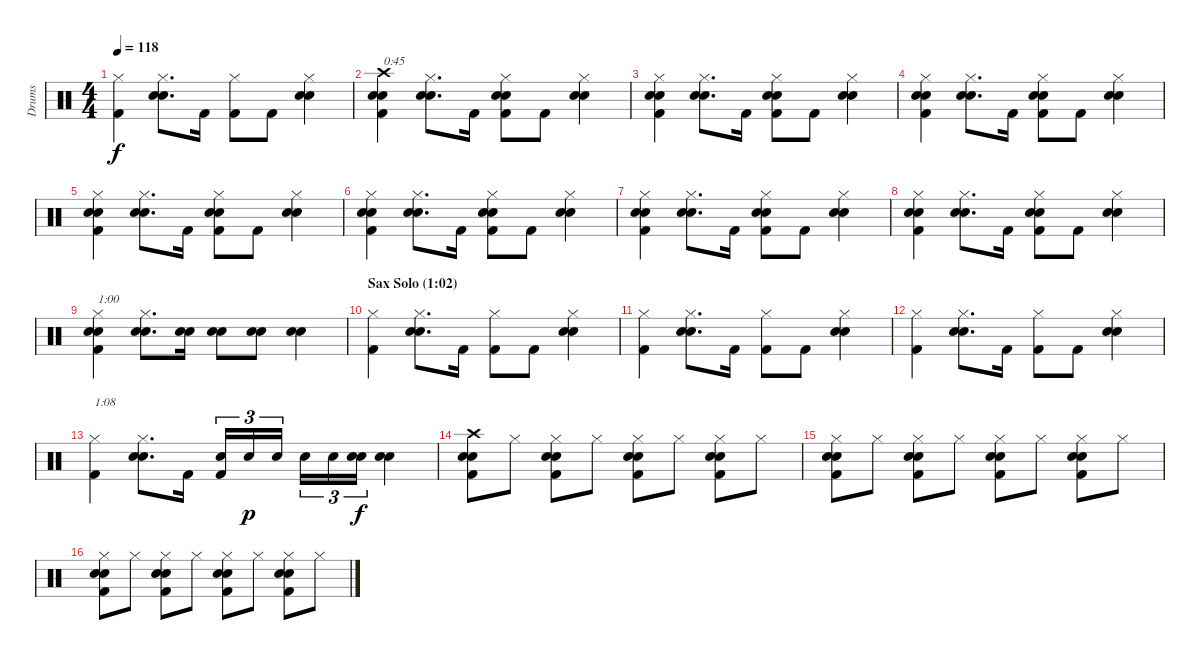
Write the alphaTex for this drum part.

\track ("Drums" "Drums") {instrument percussion}
\staff {score}
\articulation defaults
\ts (4 4)
\tempo 118
\clef neutral
\ks c
("Hi-Hat (closed)" "Kick (hit) 2").4{dy f} ("Hi-Hat (closed)" "Electric Snare (hit)" "Snare (hit) 2").8{d} "Kick (hit) 2".16 ("Hi-Hat (closed)" "Kick (hit) 2").8 "Kick (hit) 2".8 ("Hi-Hat (closed)" "Electric Snare (hit)" "Snare (hit) 2").4 |
("Crash high (hit)" "Electric Snare (hit)" "Snare (hit) 2" "Kick (hit) 2").4{txt "0:45"} ("Hi-Hat (closed)" "Electric Snare (hit)" "Snare (hit) 2").8{d} "Kick (hit) 2".16 ("Hi-Hat (closed)" "Electric Snare (hit)" "Snare (hit) 2" "Kick (hit) 2").8 "Kick (hit) 2".8 ("Hi-Hat (closed)" "Electric Snare (hit)" "Snare (hit) 2").4 |
("Hi-Hat (closed)" "Electric Snare (hit)" "Snare (hit) 2" "Kick (hit) 2").4 ("Hi-Hat (closed)" "Electric Snare (hit)" "Snare (hit) 2").8{d} "Kick (hit) 2".16 ("Hi-Hat (closed)" "Electric Snare (hit)" "Snare (hit) 2" "Kick (hit) 2").8 "Kick (hit) 2".8 ("Hi-Hat (closed)" "Electric Snare (hit)" "Snare (hit) 2").4 |
("Hi-Hat (closed)" "Electric Snare (hit)" "Snare (hit) 2" "Kick (hit) 2").4 ("Hi-Hat (closed)" "Electric Snare (hit)" "Snare (hit) 2").8{d} "Kick (hit) 2".16 ("Hi-Hat (closed)" "Electric Snare (hit)" "Snare (hit) 2" "Kick (hit) 2").8 "Kick (hit) 2".8 ("Hi-Hat (closed)" "Electric Snare (hit)" "Snare (hit) 2").4 |
("Hi-Hat (closed)" "Electric Snare (hit)" "Snare (hit) 2" "Kick (hit) 2").4 ("Hi-Hat (closed)" "Electric Snare (hit)" "Snare (hit) 2").8{d} "Kick (hit) 2".16 ("Hi-Hat (closed)" "Electric Snare (hit)" "Snare (hit) 2" "Kick (hit) 2").8 "Kick (hit) 2".8 ("Hi-Hat (closed)" "Electric Snare (hit)" "Snare (hit) 2").4 |
("Hi-Hat (closed)" "Electric Snare (hit)" "Snare (hit) 2" "Kick (hit) 2").4 ("Hi-Hat (closed)" "Electric Snare (hit)" "Snare (hit) 2").8{d} "Kick (hit) 2".16 ("Hi-Hat (closed)" "Electric Snare (hit)" "Snare (hit) 2" "Kick (hit) 2").8 "Kick (hit) 2".8 ("Hi-Hat (closed)" "Electric Snare (hit)" "Snare (hit) 2").4 |
("Hi-Hat (closed)" "Electric Snare (hit)" "Snare (hit) 2" "Kick (hit) 2").4 ("Hi-Hat (closed)" "Electric Snare (hit)" "Snare (hit) 2").8{d} "Kick (hit) 2".16 ("Hi-Hat (closed)" "Electric Snare (hit)" "Snare (hit) 2" "Kick (hit) 2").8 "Kick (hit) 2".8 ("Hi-Hat (closed)" "Electric Snare (hit)" "Snare (hit) 2").4 |
("Hi-Hat (closed)" "Electric Snare (hit)" "Snare (hit) 2" "Kick (hit) 2").4 ("Hi-Hat (closed)" "Electric Snare (hit)" "Snare (hit) 2").8{d} "Kick (hit) 2".16 ("Hi-Hat (closed)" "Electric Snare (hit)" "Snare (hit) 2" "Kick (hit) 2").8 "Kick (hit) 2".8 ("Hi-Hat (closed)" "Electric Snare (hit)" "Snare (hit) 2").4 |
("Hi-Hat (closed)" "Electric Snare (hit)" "Snare (hit) 2" "Kick (hit) 2").4{txt "1:00"} ("Hi-Hat (closed)" "Electric Snare (hit)" "Snare (hit) 2").8{d} ("Electric Snare (hit)" "Snare (hit) 2").16 ("Electric Snare (hit)" "Snare (hit) 2").8 ("Electric Snare (hit)" "Snare (hit) 2").8 ("Electric Snare (hit)" "Snare (hit) 2").4 |
\section ("" "Sax Solo (1:02)")
("Hi-Hat (closed)" "Kick (hit) 2").4 ("Hi-Hat (closed)" "Electric Snare (hit)" "Snare (hit) 2").8{d} "Kick (hit) 2".16 ("Hi-Hat (closed)" "Kick (hit) 2").8 "Kick (hit) 2".8 ("Hi-Hat (closed)" "Electric Snare (hit)" "Snare (hit) 2").4 |
("Hi-Hat (closed)" "Kick (hit) 2").4 ("Hi-Hat (closed)" "Electric Snare (hit)" "Snare (hit) 2").8{d} "Kick (hit) 2".16 ("Hi-Hat (closed)" "Kick (hit) 2").8 "Kick (hit) 2".8 ("Hi-Hat (closed)" "Electric Snare (hit)" "Snare (hit) 2").4 |
("Hi-Hat (closed)" "Kick (hit) 2").4 ("Hi-Hat (closed)" "Electric Snare (hit)" "Snare (hit) 2").8{d} "Kick (hit) 2".16 ("Hi-Hat (closed)" "Kick (hit) 2").8 "Kick (hit) 2".8 ("Hi-Hat (closed)" "Electric Snare (hit)" "Snare (hit) 2").4 |
("Hi-Hat (closed)" "Kick (hit) 2").4{txt "1:08"} ("Hi-Hat (closed)" "Electric Snare (hit)" "Snare (hit) 2").8{d} "Kick (hit) 2".16 ("Electric Snare (hit)" "Kick (hit) 2").16{tu (3 2)} "Electric Snare (hit)".16{tu (3 2) dy p} "Electric Snare (hit)".16{tu (3 2)} "Electric Snare (hit)".16{tu (3 2)} "Electric Snare (hit)".16{tu (3 2)} ("Electric Snare (hit)" "Snare (hit) 2").16{tu (3 2) dy f} ("Electric Snare (hit)" "Snare (hit) 2").4 |
("Crash high (hit)" "Electric Snare (hit)" "Snare (hit) 2" "Kick (hit) 2").8 "Hi-Hat (closed)".8 ("Hi-Hat (closed)" "Electric Snare (hit)" "Snare (hit) 2" "Kick (hit) 2").8 "Hi-Hat (closed)".8 ("Hi-Hat (closed)" "Electric Snare (hit)" "Snare (hit) 2" "Kick (hit) 2").8 "Hi-Hat (closed)".8 ("Hi-Hat (closed)" "Electric Snare (hit)" "Snare (hit) 2" "Kick (hit) 2").8 "Hi-Hat (closed)".8 |
("Hi-Hat (closed)" "Electric Snare (hit)" "Snare (hit) 2" "Kick (hit) 2").8 "Hi-Hat (closed)".8 ("Hi-Hat (closed)" "Electric Snare (hit)" "Snare (hit) 2" "Kick (hit) 2").8 "Hi-Hat (closed)".8 ("Hi-Hat (closed)" "Electric Snare (hit)" "Snare (hit) 2" "Kick (hit) 2").8 "Hi-Hat (closed)".8 ("Hi-Hat (closed)" "Electric Snare (hit)" "Snare (hit) 2" "Kick (hit) 2").8 "Hi-Hat (closed)".8 |
("Hi-Hat (closed)" "Electric Snare (hit)" "Snare (hit) 2" "Kick (hit) 2").8 "Hi-Hat (closed)".8 ("Hi-Hat (closed)" "Electric Snare (hit)" "Snare (hit) 2" "Kick (hit) 2").8 "Hi-Hat (closed)".8 ("Hi-Hat (closed)" "Electric Snare (hit)" "Snare (hit) 2" "Kick (hit) 2").8 "Hi-Hat (closed)".8 ("Hi-Hat (closed)" "Electric Snare (hit)" "Snare (hit) 2" "Kick (hit) 2").8 "Hi-Hat (closed)".8
